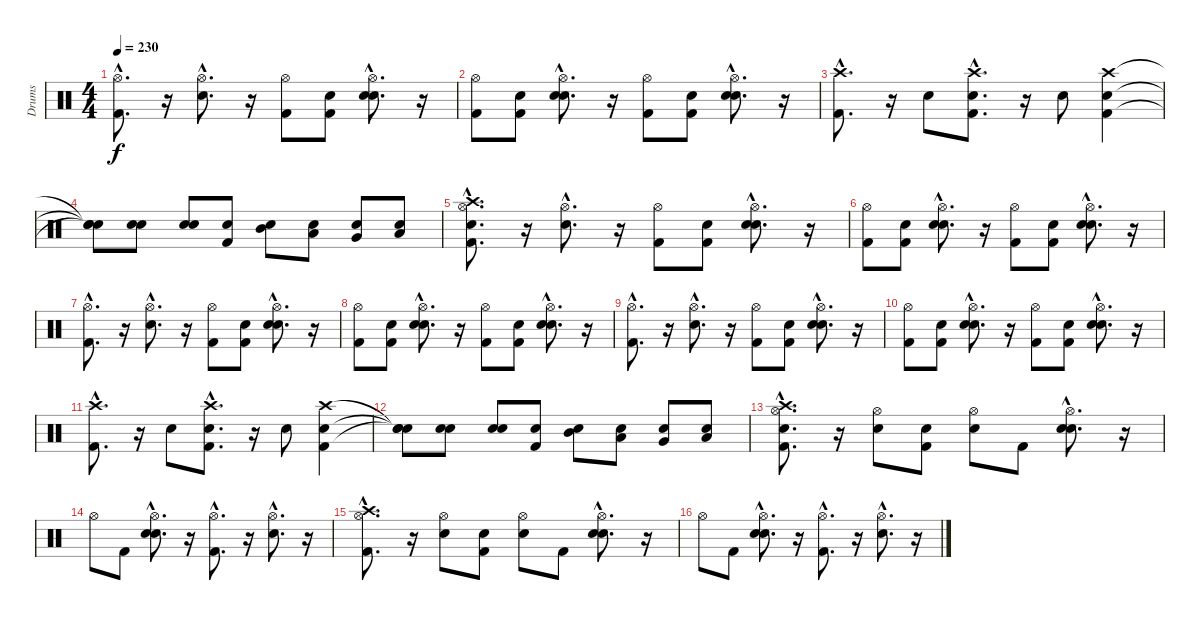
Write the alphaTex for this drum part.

\track ("Drums" "Drums") {instrument percussion}
\staff {score}
\articulation defaults
\ts (4 4)
\tempo 230
\clef neutral
\ks c
("Kick (hit) 2"{hac} "Hi-Hat (open)"{hac}).8{d dy f} r.16 ("Snare (hit) 2"{hac} "Hi-Hat (open)"{hac}).8{d} r.16 ("Kick (hit) 2" "Hi-Hat (open)").8 ("Snare (hit)" "Kick (hit) 2").8 ("Snare (hit)"{hac} "Snare (hit) 2"{hac} "Hi-Hat (open)"{hac}).8{d} r.16 |
("Kick (hit) 2" "Hi-Hat (open)").8 ("Snare (hit)" "Kick (hit) 2").8 ("Snare (hit)"{hac} "Snare (hit) 2"{hac} "Hi-Hat (open)"{hac}).8{d} r.16 ("Kick (hit) 2" "Hi-Hat (open)").8 ("Snare (hit)" "Kick (hit) 2").8 ("Snare (hit)"{hac} "Snare (hit) 2"{hac} "Hi-Hat (open)"{hac}).8{d} r.16 |
("Kick (hit) 2"{hac} "Crash high (hit)"{hac}).8{d} r.16 "Snare (hit) 2".8 ("Snare (hit)"{hac} "Kick (hit) 2"{hac} "Crash high (hit)"{hac}).8{d} r.16 "Snare (hit) 2".8 ("Snare (hit)" "Kick (hit) 2" "Crash high (hit)").4 |
("Snare (hit)"{t} "Snare (hit)"{t} "Snare (hit)"{t}).8 ("Snare (hit)" "Snare (hit) 2").8 ("Snare (hit)" "Snare (hit) 2").8 ("Snare (hit)" "Kick (hit) 2").8 ("Snare (hit)" "Mid Tom (hit)").8 ("Snare (hit)" "Low Tom (hit)").8 ("Snare (hit)" "Very Low Tom (hit)").8 ("Snare (hit)" "Low Floor Tom (hit)").8 |
("Snare (hit)"{hac} "Kick (hit) 2"{hac} "Hi-Hat (open)"{hac} "Crash high (hit)"{hac}).8{d} r.16 ("Snare (hit) 2"{hac} "Hi-Hat (open)"{hac}).8{d} r.16 ("Kick (hit) 2" "Hi-Hat (open)").8 ("Snare (hit)" "Kick (hit) 2").8 ("Snare (hit)"{hac} "Snare (hit) 2"{hac} "Hi-Hat (open)"{hac}).8{d} r.16 |
("Kick (hit) 2" "Hi-Hat (open)").8 ("Snare (hit)" "Kick (hit) 2").8 ("Snare (hit)"{hac} "Snare (hit) 2"{hac} "Hi-Hat (open)"{hac}).8{d} r.16 ("Kick (hit) 2" "Hi-Hat (open)").8 ("Snare (hit)" "Kick (hit) 2").8 ("Snare (hit)"{hac} "Snare (hit) 2"{hac} "Hi-Hat (open)"{hac}).8{d} r.16 |
("Kick (hit) 2"{hac} "Hi-Hat (open)"{hac}).8{d} r.16 ("Snare (hit) 2"{hac} "Hi-Hat (open)"{hac}).8{d} r.16 ("Kick (hit) 2" "Hi-Hat (open)").8 ("Snare (hit)" "Kick (hit) 2").8 ("Snare (hit)"{hac} "Snare (hit) 2"{hac} "Hi-Hat (open)"{hac}).8{d} r.16 |
("Kick (hit) 2" "Hi-Hat (open)").8 ("Snare (hit)" "Kick (hit) 2").8 ("Snare (hit)"{hac} "Snare (hit) 2"{hac} "Hi-Hat (open)"{hac}).8{d} r.16 ("Kick (hit) 2" "Hi-Hat (open)").8 ("Snare (hit)" "Kick (hit) 2").8 ("Snare (hit)"{hac} "Snare (hit) 2"{hac} "Hi-Hat (open)"{hac}).8{d} r.16 |
("Kick (hit) 2"{hac} "Hi-Hat (open)"{hac}).8{d} r.16 ("Snare (hit) 2"{hac} "Hi-Hat (open)"{hac}).8{d} r.16 ("Kick (hit) 2" "Hi-Hat (open)").8 ("Snare (hit)" "Kick (hit) 2").8 ("Snare (hit)"{hac} "Snare (hit) 2"{hac} "Hi-Hat (open)"{hac}).8{d} r.16 |
("Kick (hit) 2" "Hi-Hat (open)").8 ("Snare (hit)" "Kick (hit) 2").8 ("Snare (hit)"{hac} "Snare (hit) 2"{hac} "Hi-Hat (open)"{hac}).8{d} r.16 ("Kick (hit) 2" "Hi-Hat (open)").8 ("Snare (hit)" "Kick (hit) 2").8 ("Snare (hit)"{hac} "Snare (hit) 2"{hac} "Hi-Hat (open)"{hac}).8{d} r.16 |
("Kick (hit) 2"{hac} "Crash high (hit)"{hac}).8{d} r.16 "Snare (hit) 2".8 ("Snare (hit)"{hac} "Kick (hit) 2"{hac} "Crash high (hit)"{hac}).8{d} r.16 "Snare (hit) 2".8 ("Snare (hit)" "Kick (hit) 2" "Crash high (hit)").4 |
("Snare (hit)"{t} "Snare (hit)"{t} "Snare (hit)"{t}).8 ("Snare (hit)" "Snare (hit) 2").8 ("Snare (hit)" "Snare (hit) 2").8 ("Snare (hit)" "Kick (hit) 2").8 ("Snare (hit)" "Mid Tom (hit)").8 ("Snare (hit)" "Low Tom (hit)").8 ("Snare (hit)" "Very Low Tom (hit)").8 ("Snare (hit)" "Low Floor Tom (hit)").8 |
("Snare (hit)"{hac} "Kick (hit) 2"{hac} "Hi-Hat (open)"{hac} "Crash high (hit)"{hac}).8{d} r.16 ("Snare (hit) 2" "Hi-Hat (open)").8 ("Snare (hit)" "Kick (hit) 2").8 ("Snare (hit)" "Hi-Hat (open)").8 "Kick (hit) 2".8 ("Snare (hit)"{hac} "Snare (hit) 2"{hac} "Hi-Hat (open)"{hac}).8{d} r.16 |
"Hi-Hat (open)".8 "Kick (hit) 2".8 ("Snare (hit)"{hac} "Snare (hit) 2"{hac} "Hi-Hat (open)"{hac}).8{d} r.16 ("Kick (hit) 2"{hac} "Hi-Hat (open)"{hac}).8{d} r.16 ("Snare (hit) 2"{hac} "Hi-Hat (open)"{hac}).8{d} r.16 |
("Kick (hit) 2"{hac} "Hi-Hat (open)"{hac} "Crash high (hit)"{hac}).8{d} r.16 ("Snare (hit) 2" "Hi-Hat (open)").8 ("Snare (hit)" "Kick (hit) 2").8 ("Snare (hit)" "Hi-Hat (open)").8 "Kick (hit) 2".8 ("Snare (hit)"{hac} "Snare (hit) 2"{hac} "Hi-Hat (open)"{hac}).8{d} r.16 |
"Hi-Hat (open)".8 "Kick (hit) 2".8 ("Snare (hit)"{hac} "Snare (hit) 2"{hac} "Hi-Hat (open)"{hac}).8{d} r.16 ("Kick (hit) 2"{hac} "Hi-Hat (open)"{hac}).8{d} r.16 ("Snare (hit) 2"{hac} "Hi-Hat (open)"{hac}).8{d} r.16
